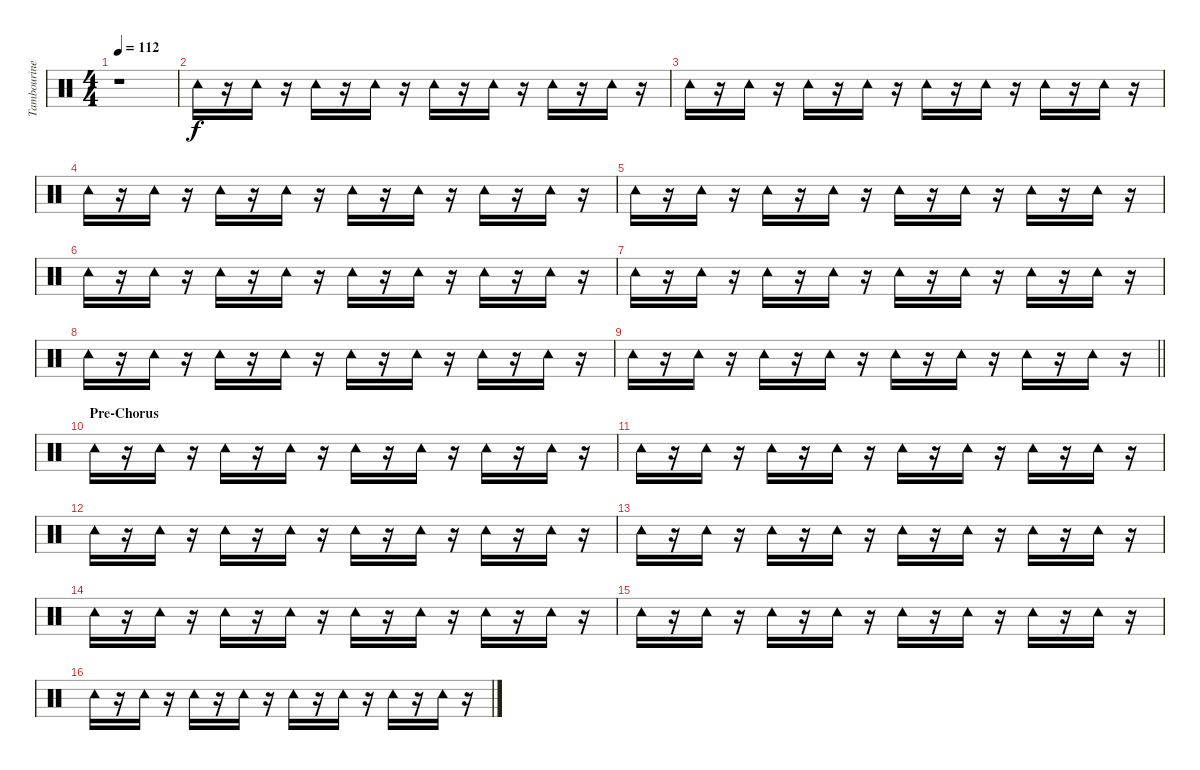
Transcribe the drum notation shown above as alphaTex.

\track ("Tambourine" "Tambourine") {instrument percussion}
\staff {score}
\articulation defaults
\ts (4 4)
\tempo 112
\clef neutral
\ks c
r.1{dy f} |
"Tambourine (hit)".16 r.16 "Tambourine (hit)".16 r.16 "Tambourine (hit)".16 r.16 "Tambourine (hit)".16 r.16 "Tambourine (hit)".16 r.16 "Tambourine (hit)".16 r.16 "Tambourine (hit)".16 r.16 "Tambourine (hit)".16 r.16 |
"Tambourine (hit)".16 r.16 "Tambourine (hit)".16 r.16 "Tambourine (hit)".16 r.16 "Tambourine (hit)".16 r.16 "Tambourine (hit)".16 r.16 "Tambourine (hit)".16 r.16 "Tambourine (hit)".16 r.16 "Tambourine (hit)".16 r.16 |
"Tambourine (hit)".16 r.16 "Tambourine (hit)".16 r.16 "Tambourine (hit)".16 r.16 "Tambourine (hit)".16 r.16 "Tambourine (hit)".16 r.16 "Tambourine (hit)".16 r.16 "Tambourine (hit)".16 r.16 "Tambourine (hit)".16 r.16 |
"Tambourine (hit)".16 r.16 "Tambourine (hit)".16 r.16 "Tambourine (hit)".16 r.16 "Tambourine (hit)".16 r.16 "Tambourine (hit)".16 r.16 "Tambourine (hit)".16 r.16 "Tambourine (hit)".16 r.16 "Tambourine (hit)".16 r.16 |
"Tambourine (hit)".16 r.16 "Tambourine (hit)".16 r.16 "Tambourine (hit)".16 r.16 "Tambourine (hit)".16 r.16 "Tambourine (hit)".16 r.16 "Tambourine (hit)".16 r.16 "Tambourine (hit)".16 r.16 "Tambourine (hit)".16 r.16 |
"Tambourine (hit)".16 r.16 "Tambourine (hit)".16 r.16 "Tambourine (hit)".16 r.16 "Tambourine (hit)".16 r.16 "Tambourine (hit)".16 r.16 "Tambourine (hit)".16 r.16 "Tambourine (hit)".16 r.16 "Tambourine (hit)".16 r.16 |
"Tambourine (hit)".16 r.16 "Tambourine (hit)".16 r.16 "Tambourine (hit)".16 r.16 "Tambourine (hit)".16 r.16 "Tambourine (hit)".16 r.16 "Tambourine (hit)".16 r.16 "Tambourine (hit)".16 r.16 "Tambourine (hit)".16 r.16 |
\barLineRight lightlight "Tambourine (hit)".16
r.16 "Tambourine (hit)".16 r.16 "Tambourine (hit)".16 r.16 "Tambourine (hit)".16 r.16 "Tambourine (hit)".16 r.16 "Tambourine (hit)".16 r.16 "Tambourine (hit)".16 r.16 "Tambourine (hit)".16 r.16 |
\section ("" "Pre-Chorus")
"Tambourine (hit)".16 r.16 "Tambourine (hit)".16 r.16 "Tambourine (hit)".16 r.16 "Tambourine (hit)".16 r.16 "Tambourine (hit)".16 r.16 "Tambourine (hit)".16 r.16 "Tambourine (hit)".16 r.16 "Tambourine (hit)".16 r.16 |
"Tambourine (hit)".16 r.16 "Tambourine (hit)".16 r.16 "Tambourine (hit)".16 r.16 "Tambourine (hit)".16 r.16 "Tambourine (hit)".16 r.16 "Tambourine (hit)".16 r.16 "Tambourine (hit)".16 r.16 "Tambourine (hit)".16 r.16 |
"Tambourine (hit)".16 r.16 "Tambourine (hit)".16 r.16 "Tambourine (hit)".16 r.16 "Tambourine (hit)".16 r.16 "Tambourine (hit)".16 r.16 "Tambourine (hit)".16 r.16 "Tambourine (hit)".16 r.16 "Tambourine (hit)".16 r.16 |
"Tambourine (hit)".16 r.16 "Tambourine (hit)".16 r.16 "Tambourine (hit)".16 r.16 "Tambourine (hit)".16 r.16 "Tambourine (hit)".16 r.16 "Tambourine (hit)".16 r.16 "Tambourine (hit)".16 r.16 "Tambourine (hit)".16 r.16 |
"Tambourine (hit)".16 r.16 "Tambourine (hit)".16 r.16 "Tambourine (hit)".16 r.16 "Tambourine (hit)".16 r.16 "Tambourine (hit)".16 r.16 "Tambourine (hit)".16 r.16 "Tambourine (hit)".16 r.16 "Tambourine (hit)".16 r.16 |
"Tambourine (hit)".16 r.16 "Tambourine (hit)".16 r.16 "Tambourine (hit)".16 r.16 "Tambourine (hit)".16 r.16 "Tambourine (hit)".16 r.16 "Tambourine (hit)".16 r.16 "Tambourine (hit)".16 r.16 "Tambourine (hit)".16 r.16 |
"Tambourine (hit)".16 r.16 "Tambourine (hit)".16 r.16 "Tambourine (hit)".16 r.16 "Tambourine (hit)".16 r.16 "Tambourine (hit)".16 r.16 "Tambourine (hit)".16 r.16 "Tambourine (hit)".16 r.16 "Tambourine (hit)".16 r.16
